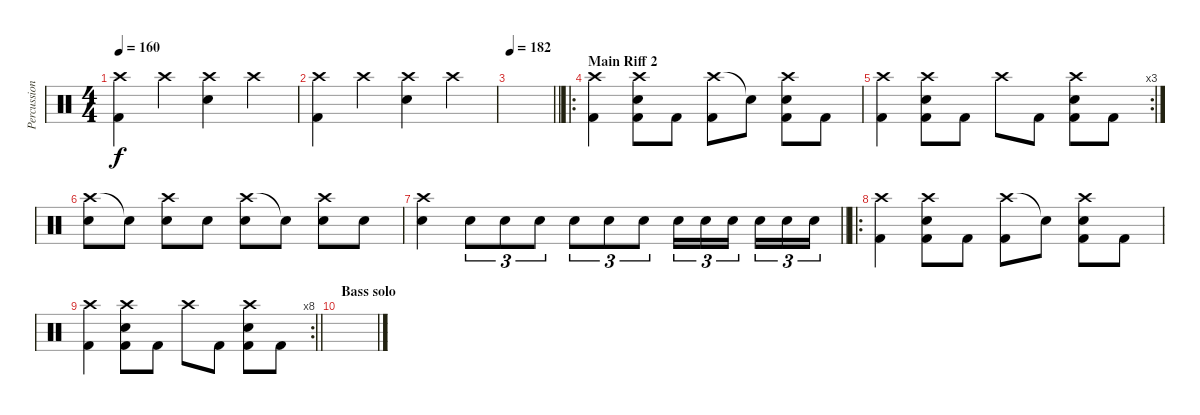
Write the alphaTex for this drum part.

\track ("Percussion" "Percussion") {instrument percussion}
\staff {score}
\articulation defaults
\ts (4 4)
\tempo 160
\clef neutral
\ks c
("Crash high (hit)" "Kick (hit) 2").4{dy f} "Crash high (hit)".4 ("Crash high (hit)" "Electric Snare (hit)").4 "Crash high (hit)".4 |
("Crash high (hit)" "Kick (hit) 2").4 "Crash high (hit)".4 ("Crash high (hit)" "Electric Snare (hit)").4 "Crash high (hit)".4 |
\tempo 182
\barLineRight lightlight
|
\ro
\section ("" "Main Riff 2")
("Crash high (hit)" "Kick (hit) 2").4 ("Crash high (hit)" "Electric Snare (hit)" "Kick (hit) 2").8 "Kick (hit) 2".8 ("Crash high (hit)" "Kick (hit) 2").8 "Snare (hit)"{t}.8 ("Crash high (hit)" "Electric Snare (hit)" "Kick (hit) 2").8 "Kick (hit) 2".8 |
\rc 3
("Crash high (hit)" "Kick (hit) 2").4 ("Crash high (hit)" "Electric Snare (hit)" "Kick (hit) 2").8 "Kick (hit) 2".8 "Crash high (hit)".8 "Kick (hit) 2".8 ("Crash high (hit)" "Electric Snare (hit)" "Kick (hit) 2").8 "Kick (hit) 2".8 |
("Crash high (hit)" "Electric Snare (hit)").8 "Snare (hit)"{t}.8 ("Crash high (hit)" "Electric Snare (hit)").8 "Electric Snare (hit)".8 ("Crash high (hit)" "Electric Snare (hit)").8 "Snare (hit)"{t}.8 ("Crash high (hit)" "Electric Snare (hit)").8 "Electric Snare (hit)".8 |
\barLineRight lightlight
("Crash high (hit)" "Electric Snare (hit)").4 "Electric Snare (hit)".8{tu (3 2)} "Electric Snare (hit)".8{tu (3 2)} "Electric Snare (hit)".8{tu (3 2)} "Electric Snare (hit)".8{tu (3 2)} "Electric Snare (hit)".8{tu (3 2)} "Electric Snare (hit)".8{tu (3 2)} "Electric Snare (hit)".16{tu (3 2)} "Electric Snare (hit)".16{tu (3 2)} "Electric Snare (hit)".16{tu (3 2) beam splitsecondary} "Electric Snare (hit)".16{tu (3 2)} "Electric Snare (hit)".16{tu (3 2)} "Electric Snare (hit)".16{tu (3 2)} |
\ro
("Crash high (hit)" "Kick (hit) 2").4 ("Crash high (hit)" "Electric Snare (hit)" "Kick (hit) 2").8 "Kick (hit) 2".8 ("Crash high (hit)" "Kick (hit) 2").8 "Snare (hit)"{t}.8 ("Crash high (hit)" "Electric Snare (hit)" "Kick (hit) 2").8 "Kick (hit) 2".8 |
\rc 8
\barLineRight lightlight
("Crash high (hit)" "Kick (hit) 2").4 ("Crash high (hit)" "Electric Snare (hit)" "Kick (hit) 2").8 "Kick (hit) 2".8 "Crash high (hit)".8 "Kick (hit) 2".8 ("Crash high (hit)" "Electric Snare (hit)" "Kick (hit) 2").8 "Kick (hit) 2".8 |
\section ("" "Bass solo")
